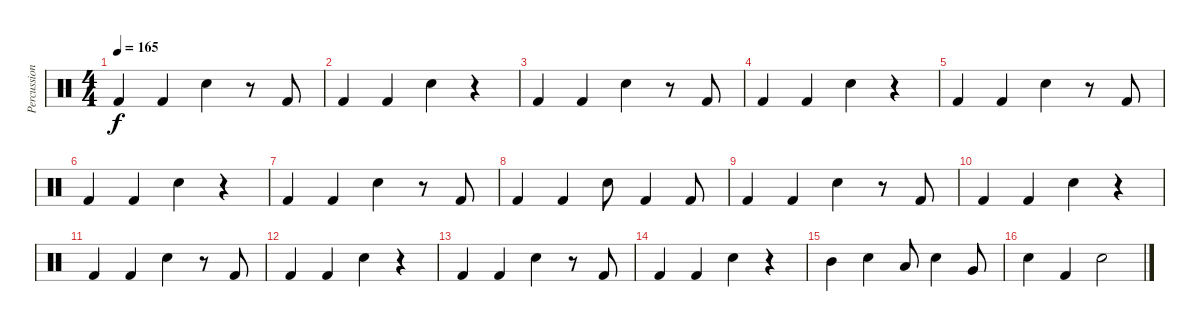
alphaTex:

\track ("Percussion" "Percussion") {instrument percussion}
\staff {score}
\articulation defaults
\ts (4 4)
\tempo 165
\clef neutral
\ks c "Kick (hit) 2".4{dy f} "Kick (hit) 2".4 "Electric Snare (hit)".4
r.8 "Kick (hit) 2".8 |
"Kick (hit) 2".4 "Kick (hit) 2".4 "Electric Snare (hit)".4 r.4 |
"Kick (hit) 2".4 "Kick (hit) 2".4 "Electric Snare (hit)".4 r.8 "Kick (hit) 2".8 |
"Kick (hit) 2".4 "Kick (hit) 2".4 "Electric Snare (hit)".4 r.4 |
"Kick (hit) 2".4 "Kick (hit) 2".4 "Electric Snare (hit)".4 r.8 "Kick (hit) 2".8 |
"Kick (hit) 2".4 "Kick (hit) 2".4 "Electric Snare (hit)".4 r.4 |
"Kick (hit) 2".4 "Kick (hit) 2".4 "Electric Snare (hit)".4 r.8 "Kick (hit) 2".8 |
"Kick (hit) 2".4 "Kick (hit) 2".4 "Electric Snare (hit)".8 "Kick (hit) 2".4 "Kick (hit) 2".8 |
"Kick (hit) 2".4 "Kick (hit) 2".4 "Electric Snare (hit)".4 r.8 "Kick (hit) 2".8 |
"Kick (hit) 2".4 "Kick (hit) 2".4 "Electric Snare (hit)".4 r.4 |
"Kick (hit) 2".4 "Kick (hit) 2".4 "Electric Snare (hit)".4 r.8 "Kick (hit) 2".8 |
"Kick (hit) 2".4 "Kick (hit) 2".4 "Electric Snare (hit)".4 r.4 |
"Kick (hit) 2".4 "Kick (hit) 2".4 "Electric Snare (hit)".4 r.8 "Kick (hit) 2".8 |
"Kick (hit) 2".4 "Kick (hit) 2".4 "Electric Snare (hit)".4 r.4 |
"Mid Tom (hit)".4 "Electric Snare (hit)".4 "Low Tom (hit)".8 "Electric Snare (hit)".4 "Very Low Tom (hit)".8 |
"Electric Snare (hit)".4 "Kick (hit) 2".4 "Electric Snare (hit)".2
